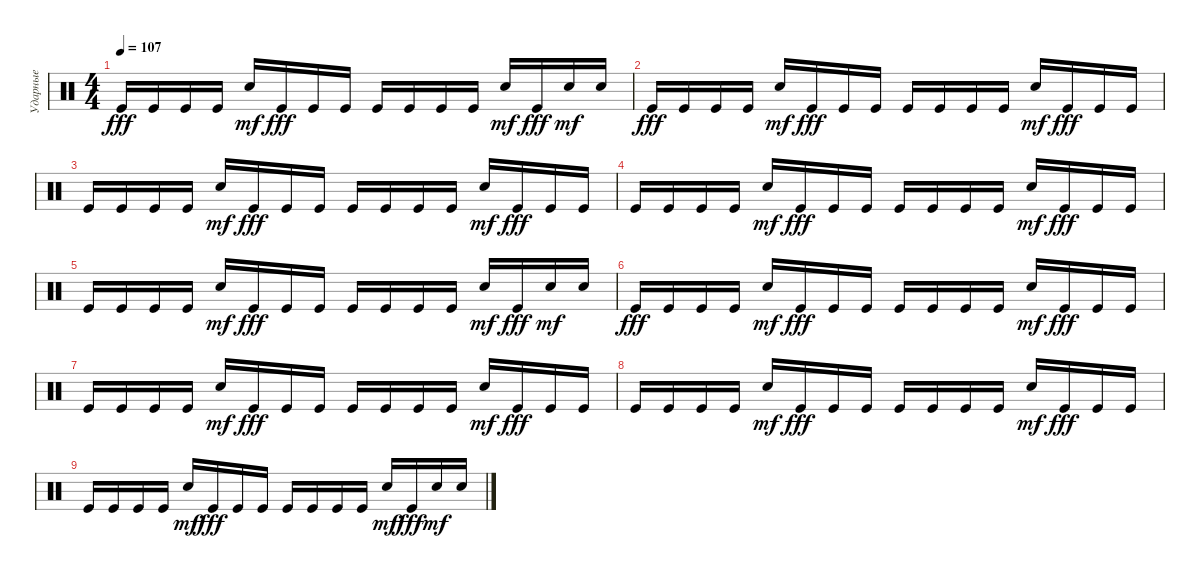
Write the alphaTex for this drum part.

\track ("Ударные" "Ударные") {instrument percussion}
\staff {score}
\articulation defaults
\ts (4 4)
\tempo 107
\clef neutral
\ks c "Kick (hit)".16{dy fff} "Kick (hit)".16 "Kick (hit)".16 "Kick (hit)".16 "Electric Snare (hit)".16{dy mf} "Kick (hit)".16{dy fff} "Kick (hit)".16 "Kick (hit)".16 "Kick (hit)".16 "Kick (hit)".16 "Kick (hit)".16 "Kick (hit)".16 "Electric Snare (hit)".16{dy mf} "Kick (hit)".16{dy fff} "Electric Snare (hit)".16{dy mf} "Electric Snare (hit)".16
|
"Kick (hit)".16{dy fff} "Kick (hit)".16 "Kick (hit)".16 "Kick (hit)".16 "Electric Snare (hit)".16{dy mf} "Kick (hit)".16{dy fff} "Kick (hit)".16 "Kick (hit)".16 "Kick (hit)".16 "Kick (hit)".16 "Kick (hit)".16 "Kick (hit)".16 "Electric Snare (hit)".16{dy mf} "Kick (hit)".16{dy fff} "Kick (hit)".16 "Kick (hit)".16 |
"Kick (hit)".16 "Kick (hit)".16 "Kick (hit)".16 "Kick (hit)".16 "Electric Snare (hit)".16{dy mf} "Kick (hit)".16{dy fff} "Kick (hit)".16 "Kick (hit)".16 "Kick (hit)".16 "Kick (hit)".16 "Kick (hit)".16 "Kick (hit)".16 "Electric Snare (hit)".16{dy mf} "Kick (hit)".16{dy fff} "Kick (hit)".16 "Kick (hit)".16 |
"Kick (hit)".16 "Kick (hit)".16 "Kick (hit)".16 "Kick (hit)".16 "Electric Snare (hit)".16{dy mf} "Kick (hit)".16{dy fff} "Kick (hit)".16 "Kick (hit)".16 "Kick (hit)".16 "Kick (hit)".16 "Kick (hit)".16 "Kick (hit)".16 "Electric Snare (hit)".16{dy mf} "Kick (hit)".16{dy fff} "Kick (hit)".16 "Kick (hit)".16 |
"Kick (hit)".16 "Kick (hit)".16 "Kick (hit)".16 "Kick (hit)".16 "Electric Snare (hit)".16{dy mf} "Kick (hit)".16{dy fff} "Kick (hit)".16 "Kick (hit)".16 "Kick (hit)".16 "Kick (hit)".16 "Kick (hit)".16 "Kick (hit)".16 "Electric Snare (hit)".16{dy mf} "Kick (hit)".16{dy fff} "Electric Snare (hit)".16{dy mf} "Electric Snare (hit)".16 |
"Kick (hit)".16{dy fff} "Kick (hit)".16 "Kick (hit)".16 "Kick (hit)".16 "Electric Snare (hit)".16{dy mf} "Kick (hit)".16{dy fff} "Kick (hit)".16 "Kick (hit)".16 "Kick (hit)".16 "Kick (hit)".16 "Kick (hit)".16 "Kick (hit)".16 "Electric Snare (hit)".16{dy mf} "Kick (hit)".16{dy fff} "Kick (hit)".16 "Kick (hit)".16 |
"Kick (hit)".16 "Kick (hit)".16 "Kick (hit)".16 "Kick (hit)".16 "Electric Snare (hit)".16{dy mf} "Kick (hit)".16{dy fff} "Kick (hit)".16 "Kick (hit)".16 "Kick (hit)".16 "Kick (hit)".16 "Kick (hit)".16 "Kick (hit)".16 "Electric Snare (hit)".16{dy mf} "Kick (hit)".16{dy fff} "Kick (hit)".16 "Kick (hit)".16 |
"Kick (hit)".16 "Kick (hit)".16 "Kick (hit)".16 "Kick (hit)".16 "Electric Snare (hit)".16{dy mf} "Kick (hit)".16{dy fff} "Kick (hit)".16 "Kick (hit)".16 "Kick (hit)".16 "Kick (hit)".16 "Kick (hit)".16 "Kick (hit)".16 "Electric Snare (hit)".16{dy mf} "Kick (hit)".16{dy fff} "Kick (hit)".16 "Kick (hit)".16 |
"Kick (hit)".16 "Kick (hit)".16 "Kick (hit)".16 "Kick (hit)".16 "Electric Snare (hit)".16{dy mf} "Kick (hit)".16{dy fff} "Kick (hit)".16 "Kick (hit)".16 "Kick (hit)".16 "Kick (hit)".16 "Kick (hit)".16 "Kick (hit)".16 "Electric Snare (hit)".16{dy mf} "Kick (hit)".16{dy fff} "Electric Snare (hit)".16{dy mf} "Electric Snare (hit)".16
